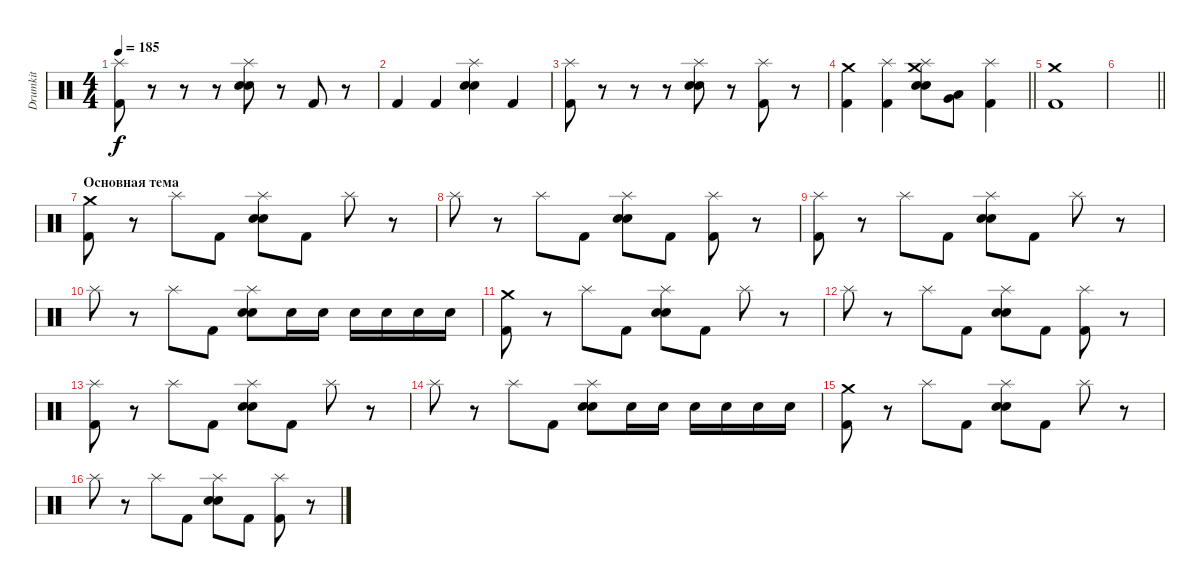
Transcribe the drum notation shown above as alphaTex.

\track ("Drumkit" "Drumkit") {instrument percussion}
\staff {score}
\articulation defaults
\ts (4 4)
\tempo 185
\clef neutral
\ks c
("Splash (hit)" "Kick (hit) 2").8{dy f} r.8 r.8 r.8 ("Splash (hit)" "Electric Snare (hit)" "Snare (hit) 2").8 r.8 "Kick (hit) 2".8 r.8 |
"Kick (hit) 2".4 "Kick (hit) 2".4 ("Splash (hit)" "Electric Snare (hit)" "Snare (hit) 2").4 "Kick (hit) 2".4 |
("Splash (hit)" "Kick (hit) 2").8 r.8 r.8 r.8 ("Splash (hit)" "Electric Snare (hit)" "Snare (hit) 2").8 r.8 ("Splash (hit)" "Kick (hit) 2").8 r.8 |
\barLineRight lightlight
("Crash medium (hit)" "Kick (hit) 2").4 ("Splash (hit)" "Kick (hit) 2").4 ("Crash medium (hit)" "Splash (hit)" "Electric Snare (hit)" "Snare (hit) 2").8 ("Low Tom (hit)" "Very Low Tom (hit)").8 ("Splash (hit)" "Kick (hit) 2").4 |
("Crash medium (hit)" "Kick (hit) 2").1 |
\barLineRight lightlight
|
\section ("" "Основная тема")
("Crash medium (hit)" "Kick (hit) 2").8 r.8 "Splash (hit)".8 "Kick (hit) 2".8 ("Splash (hit)" "Electric Snare (hit)" "Snare (hit) 2").8 "Kick (hit) 2".8 "Splash (hit)".8 r.8 |
"Splash (hit)".8 r.8 "Splash (hit)".8 "Kick (hit) 2".8 ("Splash (hit)" "Electric Snare (hit)" "Snare (hit) 2").8 "Kick (hit) 2".8 ("Splash (hit)" "Kick (hit) 2").8 r.8 |
("Splash (hit)" "Kick (hit) 2").8 r.8 "Splash (hit)".8 "Kick (hit) 2".8 ("Splash (hit)" "Electric Snare (hit)" "Snare (hit) 2").8 "Kick (hit) 2".8 "Splash (hit)".8 r.8 |
"Splash (hit)".8 r.8 "Splash (hit)".8 "Kick (hit) 2".8 ("Splash (hit)" "Electric Snare (hit)" "Snare (hit) 2").8 "Electric Snare (hit)".16 "Electric Snare (hit)".16 "Electric Snare (hit)".16 "Electric Snare (hit)".16 "Electric Snare (hit)".16 "Electric Snare (hit)".16 |
("Crash medium (hit)" "Kick (hit) 2").8 r.8 "Splash (hit)".8 "Kick (hit) 2".8 ("Splash (hit)" "Electric Snare (hit)" "Snare (hit) 2").8 "Kick (hit) 2".8 "Splash (hit)".8 r.8 |
"Splash (hit)".8 r.8 "Splash (hit)".8 "Kick (hit) 2".8 ("Splash (hit)" "Electric Snare (hit)" "Snare (hit) 2").8 "Kick (hit) 2".8 ("Splash (hit)" "Kick (hit) 2").8 r.8 |
("Splash (hit)" "Kick (hit) 2").8 r.8 "Splash (hit)".8 "Kick (hit) 2".8 ("Splash (hit)" "Electric Snare (hit)" "Snare (hit) 2").8 "Kick (hit) 2".8 "Splash (hit)".8 r.8 |
"Splash (hit)".8 r.8 "Splash (hit)".8 "Kick (hit) 2".8 ("Splash (hit)" "Electric Snare (hit)" "Snare (hit) 2").8 "Electric Snare (hit)".16 "Electric Snare (hit)".16 "Electric Snare (hit)".16 "Electric Snare (hit)".16 "Electric Snare (hit)".16 "Electric Snare (hit)".16 |
("Crash medium (hit)" "Kick (hit) 2").8 r.8 "Splash (hit)".8 "Kick (hit) 2".8 ("Splash (hit)" "Electric Snare (hit)" "Snare (hit) 2").8 "Kick (hit) 2".8 "Splash (hit)".8 r.8 |
"Splash (hit)".8 r.8 "Splash (hit)".8 "Kick (hit) 2".8 ("Splash (hit)" "Electric Snare (hit)" "Snare (hit) 2").8 "Kick (hit) 2".8 ("Splash (hit)" "Kick (hit) 2").8 r.8
